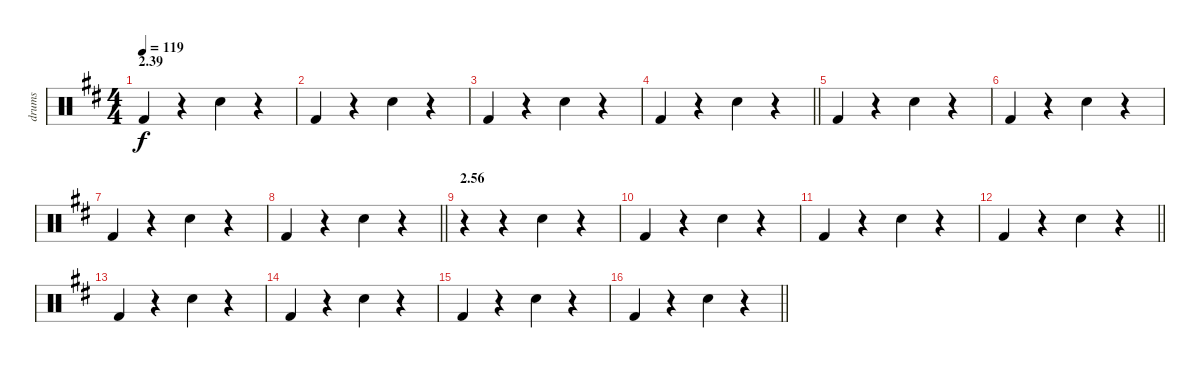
\track ("drums" "drums") {instrument percussion}
\staff {score}
\articulation defaults
\ts (4 4)
\section ("" "2.39")
\tempo 119
\clef neutral
\ks d "Kick (hit) 2".4{dy f}
r.4 "Electric Snare (hit)".4 r.4 |
"Kick (hit) 2".4 r.4 "Electric Snare (hit)".4 r.4 |
"Kick (hit) 2".4 r.4 "Electric Snare (hit)".4 r.4 |
\barLineRight lightlight "Kick (hit) 2".4
r.4 "Electric Snare (hit)".4 r.4 |
"Kick (hit) 2".4 r.4 "Electric Snare (hit)".4 r.4 |
"Kick (hit) 2".4 r.4 "Electric Snare (hit)".4 r.4 |
"Kick (hit) 2".4 r.4 "Electric Snare (hit)".4 r.4 |
\barLineRight lightlight "Kick (hit) 2".4
r.4 "Electric Snare (hit)".4 r.4 |
\section ("" "2.56")
r.4 r.4 "Electric Snare (hit)".4 r.4 |
"Kick (hit) 2".4 r.4 "Electric Snare (hit)".4 r.4 |
"Kick (hit) 2".4 r.4 "Electric Snare (hit)".4 r.4 |
\barLineRight lightlight "Kick (hit) 2".4
r.4 "Electric Snare (hit)".4 r.4 |
"Kick (hit) 2".4 r.4 "Electric Snare (hit)".4 r.4 |
"Kick (hit) 2".4 r.4 "Electric Snare (hit)".4 r.4 |
"Kick (hit) 2".4 r.4 "Electric Snare (hit)".4 r.4 |
\barLineRight lightlight "Kick (hit) 2".4
r.4 "Electric Snare (hit)".4 r.4
